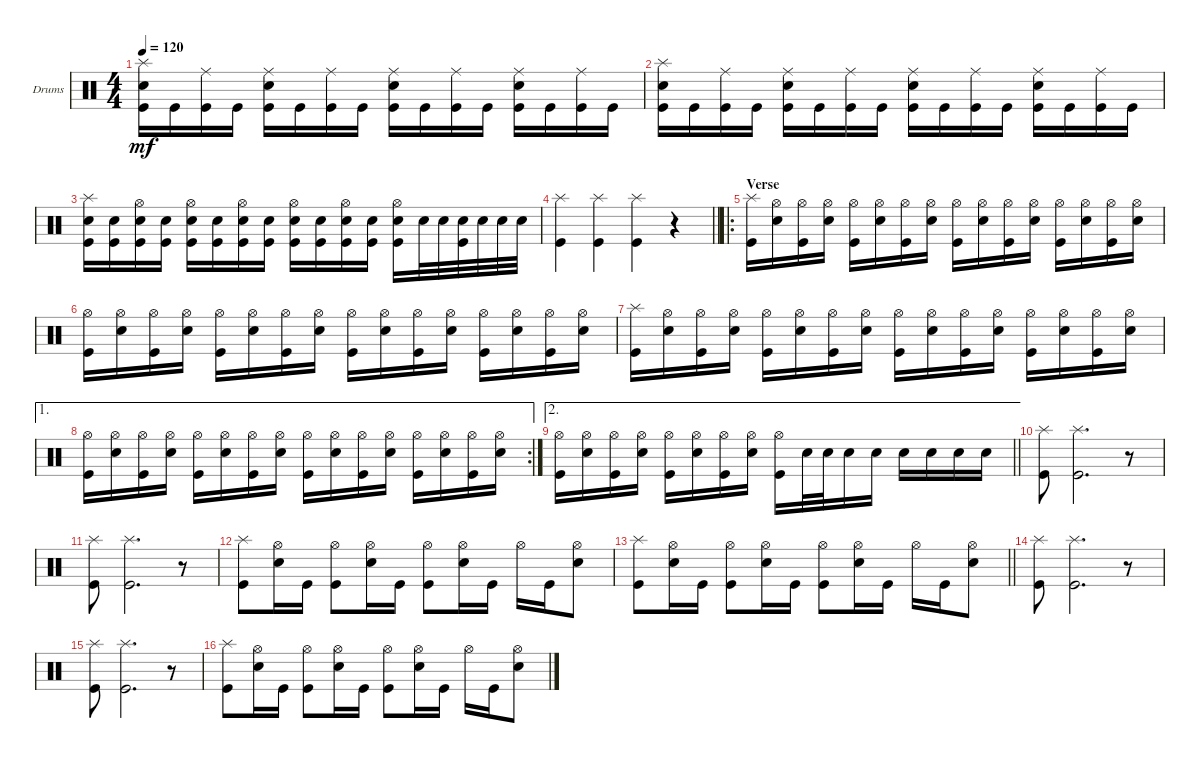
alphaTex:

\defaultSystemsLayout 4
\bracketExtendMode groupsimilarinstruments
\firstSystemTrackNameOrientation horizontal
\otherSystemsTrackNameOrientation horizontal
\track ("Drumkit" "Drums") {instrument percussion}
\staff {score}
\articulation defaults
\ts (4 4)
\tempo 120
\clef neutral
\ks c
("Kick (hit)" "Snare (hit) 2" "Splash (hit)").16{dy mf} "Kick (hit)".16 ("Kick (hit)" "Ride (middle)").16 "Kick (hit)".16 ("Kick (hit)" "Snare (hit) 2" "Ride (middle)").16 "Kick (hit)".16 ("Kick (hit)" "Ride (middle)").16 "Kick (hit)".16 ("Kick (hit)" "Snare (hit) 2" "Ride (middle)").16 "Kick (hit)".16 ("Kick (hit)" "Ride (middle)").16 "Kick (hit)".16 ("Kick (hit)" "Snare (hit) 2" "Ride (middle)").16 "Kick (hit)".16 ("Kick (hit)" "Ride (middle)").16 "Kick (hit)".16 |
("Kick (hit)" "Snare (hit) 2" "Splash (hit)").16 "Kick (hit)".16 ("Kick (hit)" "Ride (middle)").16 "Kick (hit)".16 ("Kick (hit)" "Snare (hit) 2" "Ride (middle)").16 "Kick (hit)".16 ("Kick (hit)" "Ride (middle)").16 "Kick (hit)".16 ("Kick (hit)" "Snare (hit) 2" "Ride (middle)").16 "Kick (hit)".16 ("Kick (hit)" "Ride (middle)").16 "Kick (hit)".16 ("Kick (hit)" "Snare (hit) 2" "Ride (middle)").16 "Kick (hit)".16 ("Kick (hit)" "Ride (middle)").16 "Kick (hit)".16 |
("Kick (hit)" "Snare (hit) 2" "Splash (hit)").16 ("Kick (hit)" "Snare (hit) 2").16 ("Kick (hit)" "Hi-Hat (open)" "Snare (hit) 2").16 ("Kick (hit)" "Snare (hit) 2").16 ("Kick (hit)" "Snare (hit) 2" "Hi-Hat (open)").16 ("Kick (hit)" "Snare (hit) 2").16 ("Kick (hit)" "Hi-Hat (open)" "Snare (hit) 2").16 ("Kick (hit)" "Snare (hit) 2").16 ("Kick (hit)" "Snare (hit) 2" "Hi-Hat (open)").16 ("Kick (hit)" "Snare (hit) 2").16 ("Kick (hit)" "Hi-Hat (open)" "Snare (hit) 2").16 ("Kick (hit)" "Snare (hit) 2").16 ("Kick (hit)" "Hi-Hat (open)" "Snare (hit) 2").16 "Snare (hit) 2".32 "Snare (hit) 2".32 ("Snare (hit) 2" "Kick (hit)").32 "Snare (hit) 2".32 "Snare (hit) 2".32 "Snare (hit) 2".32 |
\barLineRight lightlight
("Kick (hit)" "Splash (hit)").4 ("Kick (hit)" "Splash (hit)").4 ("Kick (hit)" "Splash (hit)").4 r.4 |
\ro
\section ("" "Verse")
("Kick (hit)" "Splash (hit)").16 ("Snare (hit) 2" "Hi-Hat (open)").16 ("Kick (hit)" "Hi-Hat (open)").16 ("Snare (hit) 2" "Hi-Hat (open)").16 ("Kick (hit)" "Hi-Hat (open)").16 ("Snare (hit) 2" "Hi-Hat (open)").16 ("Kick (hit)" "Hi-Hat (open)").16 ("Snare (hit) 2" "Hi-Hat (open)").16 ("Kick (hit)" "Hi-Hat (open)").16 ("Snare (hit) 2" "Hi-Hat (open)").16 ("Kick (hit)" "Hi-Hat (open)").16 ("Snare (hit) 2" "Hi-Hat (open)").16 ("Kick (hit)" "Hi-Hat (open)").16 ("Snare (hit) 2" "Hi-Hat (open)").16 ("Kick (hit)" "Hi-Hat (open)").16 ("Snare (hit) 2" "Hi-Hat (open)").16 |
("Kick (hit)" "Hi-Hat (open)").16 ("Snare (hit) 2" "Hi-Hat (open)").16 ("Kick (hit)" "Hi-Hat (open)").16 ("Snare (hit) 2" "Hi-Hat (open)").16 ("Kick (hit)" "Hi-Hat (open)").16 ("Snare (hit) 2" "Hi-Hat (open)").16 ("Kick (hit)" "Hi-Hat (open)").16 ("Snare (hit) 2" "Hi-Hat (open)").16 ("Kick (hit)" "Hi-Hat (open)").16 ("Snare (hit) 2" "Hi-Hat (open)").16 ("Kick (hit)" "Hi-Hat (open)").16 ("Snare (hit) 2" "Hi-Hat (open)").16 ("Kick (hit)" "Hi-Hat (open)").16 ("Snare (hit) 2" "Hi-Hat (open)").16 ("Kick (hit)" "Hi-Hat (open)").16 ("Snare (hit) 2" "Hi-Hat (open)").16 |
("Kick (hit)" "Splash (hit)").16 ("Snare (hit) 2" "Hi-Hat (open)").16 ("Kick (hit)" "Hi-Hat (open)").16 ("Snare (hit) 2" "Hi-Hat (open)").16 ("Kick (hit)" "Hi-Hat (open)").16 ("Snare (hit) 2" "Hi-Hat (open)").16 ("Kick (hit)" "Hi-Hat (open)").16 ("Snare (hit) 2" "Hi-Hat (open)").16 ("Kick (hit)" "Hi-Hat (open)").16 ("Snare (hit) 2" "Hi-Hat (open)").16 ("Kick (hit)" "Hi-Hat (open)").16 ("Snare (hit) 2" "Hi-Hat (open)").16 ("Kick (hit)" "Hi-Hat (open)").16 ("Snare (hit) 2" "Hi-Hat (open)").16 ("Kick (hit)" "Hi-Hat (open)").16 ("Snare (hit) 2" "Hi-Hat (open)").16 |
\ae 1
\rc 2
("Kick (hit)" "Hi-Hat (open)").16 ("Snare (hit) 2" "Hi-Hat (open)").16 ("Kick (hit)" "Hi-Hat (open)").16 ("Snare (hit) 2" "Hi-Hat (open)").16 ("Kick (hit)" "Hi-Hat (open)").16 ("Snare (hit) 2" "Hi-Hat (open)").16 ("Kick (hit)" "Hi-Hat (open)").16 ("Snare (hit) 2" "Hi-Hat (open)").16 ("Kick (hit)" "Hi-Hat (open)").16 ("Snare (hit) 2" "Hi-Hat (open)").16 ("Kick (hit)" "Hi-Hat (open)").16 ("Snare (hit) 2" "Hi-Hat (open)").16 ("Kick (hit)" "Hi-Hat (open)").16 ("Snare (hit) 2" "Hi-Hat (open)").16 ("Kick (hit)" "Hi-Hat (open)").16 ("Snare (hit) 2" "Hi-Hat (open)").16 |
\ae 2
\barLineRight lightlight
("Kick (hit)" "Hi-Hat (open)").16 ("Snare (hit) 2" "Hi-Hat (open)").16 ("Kick (hit)" "Hi-Hat (open)").16 ("Snare (hit) 2" "Hi-Hat (open)").16 ("Kick (hit)" "Hi-Hat (open)").16 ("Snare (hit) 2" "Hi-Hat (open)").16 ("Kick (hit)" "Hi-Hat (open)").16 ("Snare (hit) 2" "Hi-Hat (open)").16 ("Kick (hit)" "Hi-Hat (open)").16 "Snare (hit) 2".32 "Snare (hit) 2".32 "Snare (hit) 2".16 "Snare (hit) 2".16 "Snare (hit) 2".16 "Snare (hit) 2".16 "Snare (hit) 2".16 "Snare (hit) 2".16 |
("Kick (hit)" "Splash (hit)").8 ("Kick (hit)" "Splash (hit)").2{d} r.8 |
("Kick (hit)" "Splash (hit)").8 ("Kick (hit)" "Splash (hit)").2{d} r.8 |
("Kick (hit)" "Splash (hit)").8 ("Snare (hit) 2" "Hi-Hat (open)").16 "Kick (hit)".16 ("Kick (hit)" "Hi-Hat (open)").8 ("Snare (hit) 2" "Hi-Hat (open)").16 "Kick (hit)".16 ("Kick (hit)" "Hi-Hat (open)").8 ("Snare (hit) 2" "Hi-Hat (open)").16 "Kick (hit)".16 "Hi-Hat (open)".16 "Kick (hit)".16 ("Snare (hit) 2" "Hi-Hat (open)").8 |
\barLineRight lightlight
("Kick (hit)" "Splash (hit)").8 ("Snare (hit) 2" "Hi-Hat (open)").16 "Kick (hit)".16 ("Kick (hit)" "Hi-Hat (open)").8 ("Snare (hit) 2" "Hi-Hat (open)").16 "Kick (hit)".16 ("Kick (hit)" "Hi-Hat (open)").8 ("Snare (hit) 2" "Hi-Hat (open)").16 "Kick (hit)".16 "Hi-Hat (open)".16 "Kick (hit)".16 ("Snare (hit) 2" "Hi-Hat (open)").8 |
("Kick (hit)" "Splash (hit)").8 ("Kick (hit)" "Splash (hit)").2{d} r.8 |
("Kick (hit)" "Splash (hit)").8 ("Kick (hit)" "Splash (hit)").2{d} r.8 |
("Kick (hit)" "Splash (hit)").8 ("Snare (hit) 2" "Hi-Hat (open)").16 "Kick (hit)".16 ("Kick (hit)" "Hi-Hat (open)").8 ("Snare (hit) 2" "Hi-Hat (open)").16 "Kick (hit)".16 ("Kick (hit)" "Hi-Hat (open)").8 ("Snare (hit) 2" "Hi-Hat (open)").16 "Kick (hit)".16 "Hi-Hat (open)".16 "Kick (hit)".16 ("Snare (hit) 2" "Hi-Hat (open)").8
